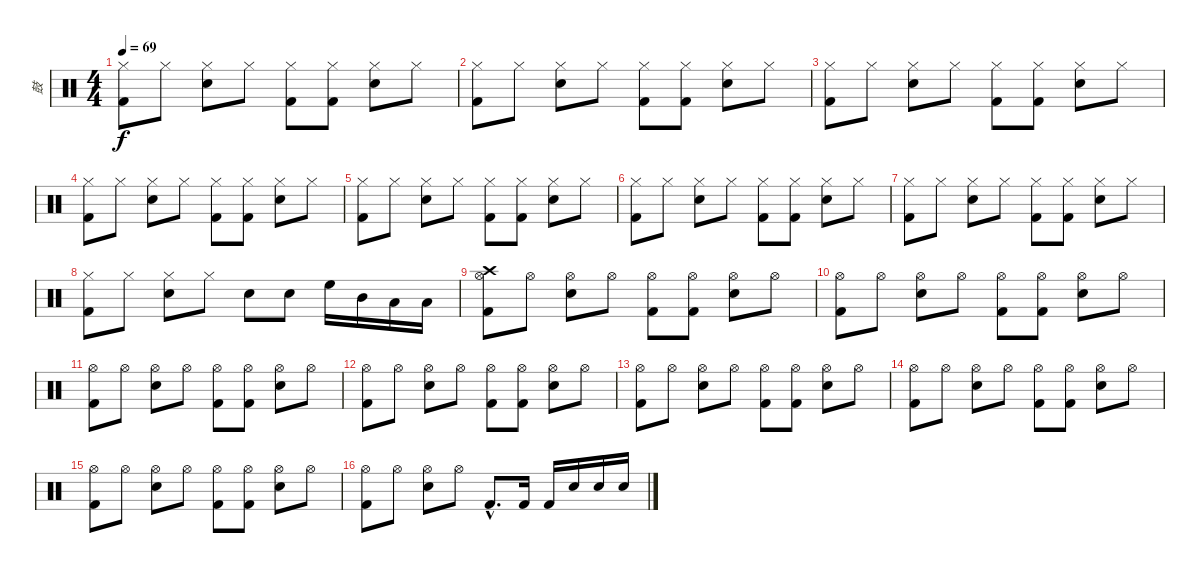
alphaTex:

\track ("鼓" "鼓") {instrument percussion}
\staff {score}
\articulation defaults
\ts (4 4)
\tempo 69
\clef neutral
\ks c
("Hi-Hat (closed)" "Kick (hit) 2").8{dy f} "Hi-Hat (closed)".8 ("Hi-Hat (closed)" "Snare (hit) 2").8 "Hi-Hat (closed)".8 ("Hi-Hat (closed)" "Kick (hit) 2").8 ("Hi-Hat (closed)" "Kick (hit) 2").8 ("Hi-Hat (closed)" "Snare (hit) 2").8 "Hi-Hat (closed)".8 |
("Hi-Hat (closed)" "Kick (hit) 2").8 "Hi-Hat (closed)".8 ("Hi-Hat (closed)" "Snare (hit) 2").8 "Hi-Hat (closed)".8 ("Hi-Hat (closed)" "Kick (hit) 2").8 ("Hi-Hat (closed)" "Kick (hit) 2").8 ("Hi-Hat (closed)" "Snare (hit) 2").8 "Hi-Hat (closed)".8 |
("Hi-Hat (closed)" "Kick (hit) 2").8 "Hi-Hat (closed)".8 ("Hi-Hat (closed)" "Snare (hit) 2").8 "Hi-Hat (closed)".8 ("Hi-Hat (closed)" "Kick (hit) 2").8 ("Hi-Hat (closed)" "Kick (hit) 2").8 ("Hi-Hat (closed)" "Snare (hit) 2").8 "Hi-Hat (closed)".8 |
("Hi-Hat (closed)" "Kick (hit) 2").8 "Hi-Hat (closed)".8 ("Hi-Hat (closed)" "Snare (hit) 2").8 "Hi-Hat (closed)".8 ("Hi-Hat (closed)" "Kick (hit) 2").8 ("Hi-Hat (closed)" "Kick (hit) 2").8 ("Hi-Hat (closed)" "Snare (hit) 2").8 "Hi-Hat (closed)".8 |
("Hi-Hat (closed)" "Kick (hit) 2").8 "Hi-Hat (closed)".8 ("Hi-Hat (closed)" "Snare (hit) 2").8 "Hi-Hat (closed)".8 ("Hi-Hat (closed)" "Kick (hit) 2").8 ("Hi-Hat (closed)" "Kick (hit) 2").8 ("Hi-Hat (closed)" "Snare (hit) 2").8 "Hi-Hat (closed)".8 |
("Hi-Hat (closed)" "Kick (hit) 2").8 "Hi-Hat (closed)".8 ("Hi-Hat (closed)" "Snare (hit) 2").8 "Hi-Hat (closed)".8 ("Hi-Hat (closed)" "Kick (hit) 2").8 ("Hi-Hat (closed)" "Kick (hit) 2").8 ("Hi-Hat (closed)" "Snare (hit) 2").8 "Hi-Hat (closed)".8 |
("Hi-Hat (closed)" "Kick (hit) 2").8 "Hi-Hat (closed)".8 ("Hi-Hat (closed)" "Snare (hit) 2").8 "Hi-Hat (closed)".8 ("Hi-Hat (closed)" "Kick (hit) 2").8 ("Hi-Hat (closed)" "Kick (hit) 2").8 ("Hi-Hat (closed)" "Snare (hit) 2").8 "Hi-Hat (closed)".8 |
("Hi-Hat (closed)" "Kick (hit) 2").8 "Hi-Hat (closed)".8 ("Hi-Hat (closed)" "Snare (hit) 2").8 "Hi-Hat (closed)".8 "Snare (hit) 2".8 "Snare (hit) 2".8 "High Floor Tom (hit)".16 "Mid Tom (hit)".16 "Low Tom (hit)".16 "Low Floor Tom (hit)".16 |
("Crash high (hit)" "Hi-Hat (open)" "Kick (hit) 2").8 "Hi-Hat (open)".8 ("Hi-Hat (open)" "Snare (hit) 2").8 "Hi-Hat (open)".8 ("Hi-Hat (open)" "Kick (hit) 2").8 ("Hi-Hat (open)" "Kick (hit) 2").8 ("Hi-Hat (open)" "Snare (hit) 2").8 "Hi-Hat (open)".8 |
("Hi-Hat (open)" "Kick (hit) 2").8 "Hi-Hat (open)".8 ("Hi-Hat (open)" "Snare (hit) 2").8 "Hi-Hat (open)".8 ("Hi-Hat (open)" "Kick (hit) 2").8 ("Hi-Hat (open)" "Kick (hit) 2").8 ("Hi-Hat (open)" "Snare (hit) 2").8 "Hi-Hat (open)".8 |
("Hi-Hat (open)" "Kick (hit) 2").8 "Hi-Hat (open)".8 ("Hi-Hat (open)" "Snare (hit) 2").8 "Hi-Hat (open)".8 ("Hi-Hat (open)" "Kick (hit) 2").8 ("Hi-Hat (open)" "Kick (hit) 2").8 ("Hi-Hat (open)" "Snare (hit) 2").8 "Hi-Hat (open)".8 |
("Hi-Hat (open)" "Kick (hit) 2").8 "Hi-Hat (open)".8 ("Hi-Hat (open)" "Snare (hit) 2").8 "Hi-Hat (open)".8 ("Hi-Hat (open)" "Kick (hit) 2").8 ("Hi-Hat (open)" "Kick (hit) 2").8 ("Hi-Hat (open)" "Snare (hit) 2").8 "Hi-Hat (open)".8 |
("Hi-Hat (open)" "Kick (hit) 2").8 "Hi-Hat (open)".8 ("Hi-Hat (open)" "Snare (hit) 2").8 "Hi-Hat (open)".8 ("Hi-Hat (open)" "Kick (hit) 2").8 ("Hi-Hat (open)" "Kick (hit) 2").8 ("Hi-Hat (open)" "Snare (hit) 2").8 "Hi-Hat (open)".8 |
("Hi-Hat (open)" "Kick (hit) 2").8 "Hi-Hat (open)".8 ("Hi-Hat (open)" "Snare (hit) 2").8 "Hi-Hat (open)".8 ("Hi-Hat (open)" "Kick (hit) 2").8 ("Hi-Hat (open)" "Kick (hit) 2").8 ("Hi-Hat (open)" "Snare (hit) 2").8 "Hi-Hat (open)".8 |
("Hi-Hat (open)" "Kick (hit) 2").8 "Hi-Hat (open)".8 ("Hi-Hat (open)" "Snare (hit) 2").8 "Hi-Hat (open)".8 ("Hi-Hat (open)" "Kick (hit) 2").8 ("Hi-Hat (open)" "Kick (hit) 2").8 ("Hi-Hat (open)" "Snare (hit) 2").8 "Hi-Hat (open)".8 |
("Hi-Hat (open)" "Kick (hit) 2").8 "Hi-Hat (open)".8 ("Hi-Hat (open)" "Snare (hit) 2").8 "Hi-Hat (open)".8 "Kick (hit) 2"{hac}.8{d} "Kick (hit) 2".16 "Kick (hit) 2".16 "Snare (hit) 2".16 "Snare (hit) 2".16 "Snare (hit) 2".16
